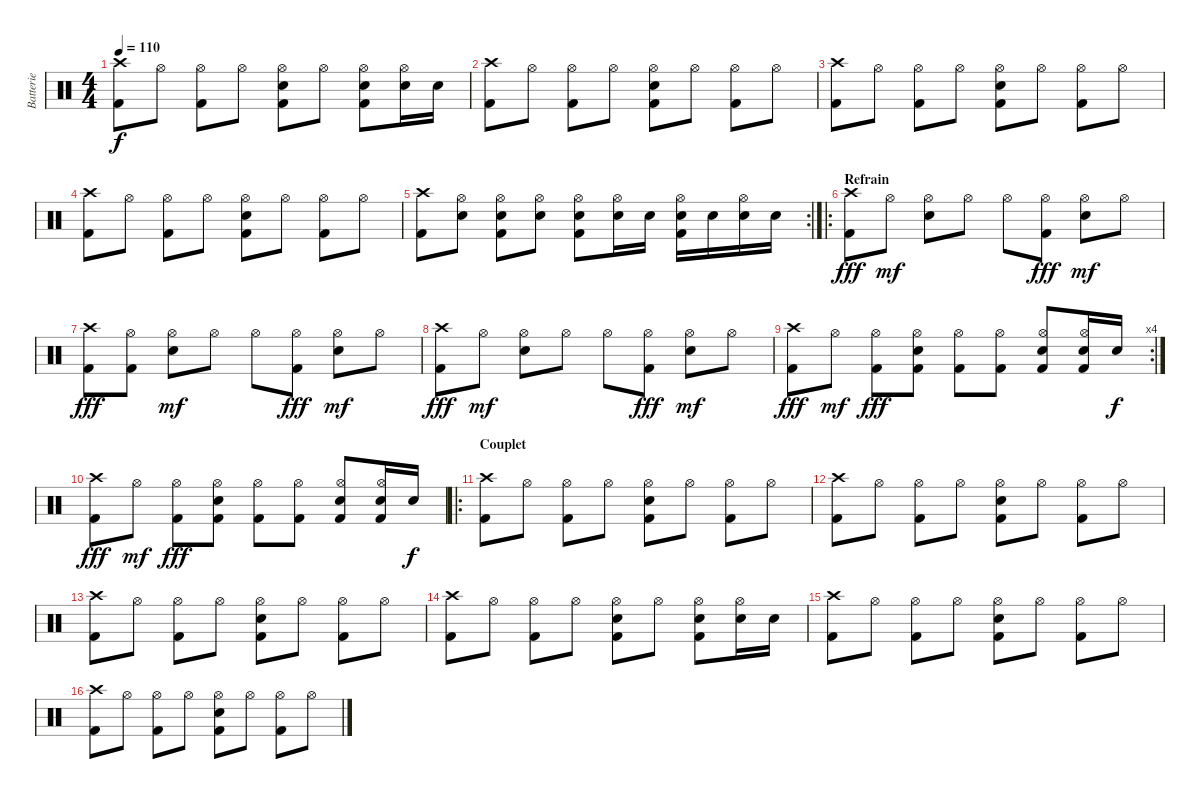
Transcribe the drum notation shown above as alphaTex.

\track ("Batterie" "Batterie") {instrument percussion}
\staff {score}
\articulation defaults
\ts (4 4)
\tempo 110
\clef neutral
\ks c
("Crash high (hit)" "Kick (hit) 2").8{dy f} "Hi-Hat (open)".8 ("Hi-Hat (open)" "Kick (hit) 2").8 "Hi-Hat (open)".8 ("Snare (hit) 2" "Hi-Hat (open)" "Kick (hit) 2").8 "Hi-Hat (open)".8 ("Snare (hit) 2" "Hi-Hat (open)" "Kick (hit) 2").8 ("Snare (hit) 2" "Hi-Hat (open)").16 "Snare (hit) 2".16 |
("Crash high (hit)" "Kick (hit) 2").8 "Hi-Hat (open)".8 ("Hi-Hat (open)" "Kick (hit) 2").8 "Hi-Hat (open)".8 ("Snare (hit) 2" "Hi-Hat (open)" "Kick (hit) 2").8 "Hi-Hat (open)".8 ("Hi-Hat (open)" "Kick (hit) 2").8 "Hi-Hat (open)".8 |
("Crash high (hit)" "Kick (hit) 2").8 "Hi-Hat (open)".8 ("Hi-Hat (open)" "Kick (hit) 2").8 "Hi-Hat (open)".8 ("Snare (hit) 2" "Hi-Hat (open)" "Kick (hit) 2").8 "Hi-Hat (open)".8 ("Hi-Hat (open)" "Kick (hit) 2").8 "Hi-Hat (open)".8 |
("Crash high (hit)" "Kick (hit) 2").8 "Hi-Hat (open)".8 ("Hi-Hat (open)" "Kick (hit) 2").8 "Hi-Hat (open)".8 ("Snare (hit) 2" "Hi-Hat (open)" "Kick (hit) 2").8 "Hi-Hat (open)".8 ("Hi-Hat (open)" "Kick (hit) 2").8 "Hi-Hat (open)".8 |
\rc 2
("Crash high (hit)" "Kick (hit) 2").8 ("Snare (hit) 2" "Hi-Hat (open)").8 ("Snare (hit) 2" "Hi-Hat (open)" "Kick (hit) 2").8 ("Snare (hit) 2" "Hi-Hat (open)").8 ("Snare (hit) 2" "Hi-Hat (open)" "Kick (hit) 2").8 ("Snare (hit) 2" "Hi-Hat (open)").16 "Snare (hit) 2".16 ("Snare (hit) 2" "Hi-Hat (open)" "Kick (hit) 2").16 "Snare (hit) 2".16 ("Snare (hit) 2" "Hi-Hat (open)").16 "Snare (hit) 2".16 |
\ro
\section ("" "Refrain")
("Crash high (hit)" "Kick (hit) 2").8{dy fff} "Hi-Hat (open)".8{dy mf} ("Hi-Hat (open)" "Snare (hit) 2").8 "Hi-Hat (open)".8 "Hi-Hat (open)".8 ("Hi-Hat (open)" "Kick (hit) 2").8{dy fff} ("Hi-Hat (open)" "Snare (hit) 2").8{dy mf} "Hi-Hat (open)".8 |
("Crash high (hit)" "Kick (hit) 2").8{dy fff} ("Hi-Hat (open)" "Kick (hit) 2").8 ("Hi-Hat (open)" "Snare (hit) 2").8{dy mf} "Hi-Hat (open)".8 "Hi-Hat (open)".8 ("Hi-Hat (open)" "Kick (hit) 2").8{dy fff} ("Hi-Hat (open)" "Snare (hit) 2").8{dy mf} "Hi-Hat (open)".8 |
("Crash high (hit)" "Kick (hit) 2").8{dy fff} "Hi-Hat (open)".8{dy mf} ("Hi-Hat (open)" "Snare (hit) 2").8 "Hi-Hat (open)".8 "Hi-Hat (open)".8 ("Hi-Hat (open)" "Kick (hit) 2").8{dy fff} ("Hi-Hat (open)" "Snare (hit) 2").8{dy mf} "Hi-Hat (open)".8 |
\rc 4
("Crash high (hit)" "Kick (hit) 2").8{dy fff} "Hi-Hat (open)".8{dy mf} ("Hi-Hat (open)" "Kick (hit) 2").8{dy fff} ("Hi-Hat (open)" "Snare (hit) 2" "Kick (hit) 2").8 ("Hi-Hat (open)" "Kick (hit) 2").8 ("Hi-Hat (open)" "Kick (hit) 2").8 ("Hi-Hat (open)" "Snare (hit) 2" "Kick (hit) 2").8 ("Hi-Hat (open)" "Snare (hit) 2" "Kick (hit) 2").16 "Snare (hit) 2".16{dy f} |
("Crash high (hit)" "Kick (hit) 2").8{dy fff} "Hi-Hat (open)".8{dy mf} ("Hi-Hat (open)" "Kick (hit) 2").8{dy fff} ("Hi-Hat (open)" "Snare (hit) 2" "Kick (hit) 2").8 ("Hi-Hat (open)" "Kick (hit) 2").8 ("Hi-Hat (open)" "Kick (hit) 2").8 ("Hi-Hat (open)" "Snare (hit) 2" "Kick (hit) 2").8 ("Hi-Hat (open)" "Snare (hit) 2" "Kick (hit) 2").16 "Snare (hit) 2".16{dy f} |
\ro
\section ("" "Couplet")
("Crash high (hit)" "Kick (hit) 2").8 "Hi-Hat (open)".8 ("Hi-Hat (open)" "Kick (hit) 2").8 "Hi-Hat (open)".8 ("Snare (hit) 2" "Hi-Hat (open)" "Kick (hit) 2").8 "Hi-Hat (open)".8 ("Hi-Hat (open)" "Kick (hit) 2").8 "Hi-Hat (open)".8 |
("Crash high (hit)" "Kick (hit) 2").8 "Hi-Hat (open)".8 ("Hi-Hat (open)" "Kick (hit) 2").8 "Hi-Hat (open)".8 ("Snare (hit) 2" "Hi-Hat (open)" "Kick (hit) 2").8 "Hi-Hat (open)".8 ("Hi-Hat (open)" "Kick (hit) 2").8 "Hi-Hat (open)".8 |
("Crash high (hit)" "Kick (hit) 2").8 "Hi-Hat (open)".8 ("Hi-Hat (open)" "Kick (hit) 2").8 "Hi-Hat (open)".8 ("Snare (hit) 2" "Hi-Hat (open)" "Kick (hit) 2").8 "Hi-Hat (open)".8 ("Hi-Hat (open)" "Kick (hit) 2").8 "Hi-Hat (open)".8 |
("Crash high (hit)" "Kick (hit) 2").8 "Hi-Hat (open)".8 ("Hi-Hat (open)" "Kick (hit) 2").8 "Hi-Hat (open)".8 ("Snare (hit) 2" "Hi-Hat (open)" "Kick (hit) 2").8 "Hi-Hat (open)".8 ("Snare (hit) 2" "Hi-Hat (open)" "Kick (hit) 2").8 ("Snare (hit) 2" "Hi-Hat (open)").16 "Snare (hit) 2".16 |
("Crash high (hit)" "Kick (hit) 2").8 "Hi-Hat (open)".8 ("Hi-Hat (open)" "Kick (hit) 2").8 "Hi-Hat (open)".8 ("Snare (hit) 2" "Hi-Hat (open)" "Kick (hit) 2").8 "Hi-Hat (open)".8 ("Hi-Hat (open)" "Kick (hit) 2").8 "Hi-Hat (open)".8 |
("Crash high (hit)" "Kick (hit) 2").8 "Hi-Hat (open)".8 ("Hi-Hat (open)" "Kick (hit) 2").8 "Hi-Hat (open)".8 ("Snare (hit) 2" "Hi-Hat (open)" "Kick (hit) 2").8 "Hi-Hat (open)".8 ("Hi-Hat (open)" "Kick (hit) 2").8 "Hi-Hat (open)".8
